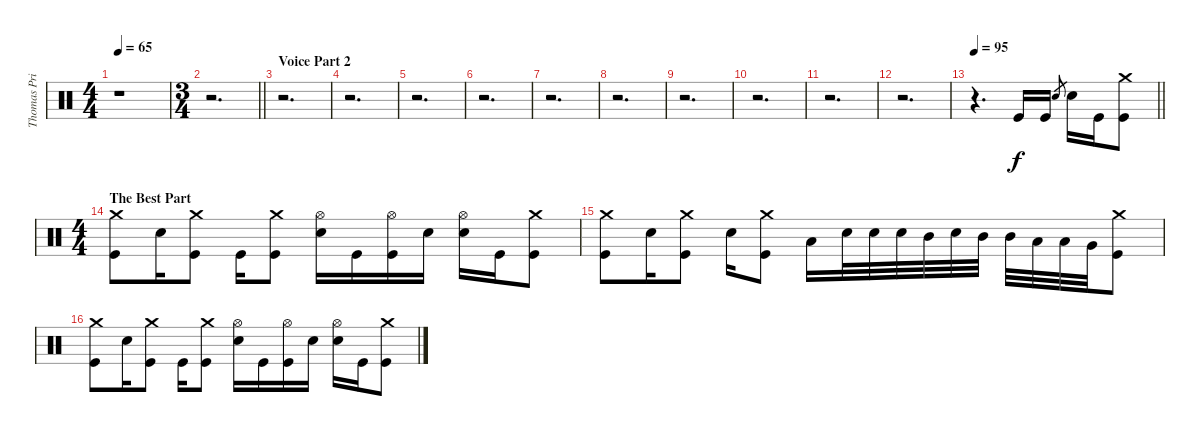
\track ("Thomas Pridgen [Drum]" "Thomas Pri") {instrument percussion}
\staff {score}
\articulation defaults
\ts (4 4)
\tempo 65
\clef neutral
\ks c
r.1{dy f} |
\ts (3 4)
\barLineRight lightlight
r.2{d} |
\section ("" "Voice Part 2")
r.2{d} |
r.2{d} |
r.2{d} |
r.2{d} |
r.2{d} |
r.2{d} |
r.2{d} |
r.2{d} |
r.2{d} |
r.2{d} |
\tempo 95
\barLineRight lightlight
r.4{d} "Kick (hit)".16 "Kick (hit)".16 "Electric Snare (hit)".8{gr} "Electric Snare (hit)".16 "Kick (hit)".16 ("Crash medium (hit)" "Kick (hit)").8 |
\ts (4 4)
\section ("" "The Best Part ")
("Crash medium (hit)" "Kick (hit)").8 "Electric Snare (hit)".16 ("Crash medium (hit)" "Kick (hit)").8 "Kick (hit)".16 ("Crash medium (hit)" "Kick (hit)").8 ("Hi-Hat (open)" "Electric Snare (hit)").16 "Kick (hit)".16 ("Hi-Hat (open)" "Kick (hit)").16 "Electric Snare (hit)".16 ("Hi-Hat (open)" "Electric Snare (hit)").16 "Kick (hit)".16 ("Crash medium (hit)" "Kick (hit)").8 |
("Crash medium (hit)" "Kick (hit)").8 "Electric Snare (hit)".16 ("Crash medium (hit)" "Kick (hit)").8 "Electric Snare (hit)".16 ("Crash medium (hit)" "Kick (hit)").8 "Low Tom (hit)".16 "Electric Snare (hit)".32 "Electric Snare (hit)".32 "Electric Snare (hit)".32 "Mid Tom (hit)".32 "Electric Snare (hit)".32 "Mid Tom (hit)".32 "Mid Tom (hit)".32 "Low Tom (hit)".32 "Low Tom (hit)".32 "Very Low Tom (hit)".32 ("Crash medium (hit)" "Kick (hit)").8 |
("Crash medium (hit)" "Kick (hit)").8 "Electric Snare (hit)".16 ("Crash medium (hit)" "Kick (hit)").8 "Kick (hit)".16 ("Crash medium (hit)" "Kick (hit)").8 ("Hi-Hat (open)" "Electric Snare (hit)").16 "Kick (hit)".16 ("Hi-Hat (open)" "Kick (hit)").16 "Electric Snare (hit)".16 ("Hi-Hat (open)" "Electric Snare (hit)").16 "Kick (hit)".16 ("Crash medium (hit)" "Kick (hit)").8
